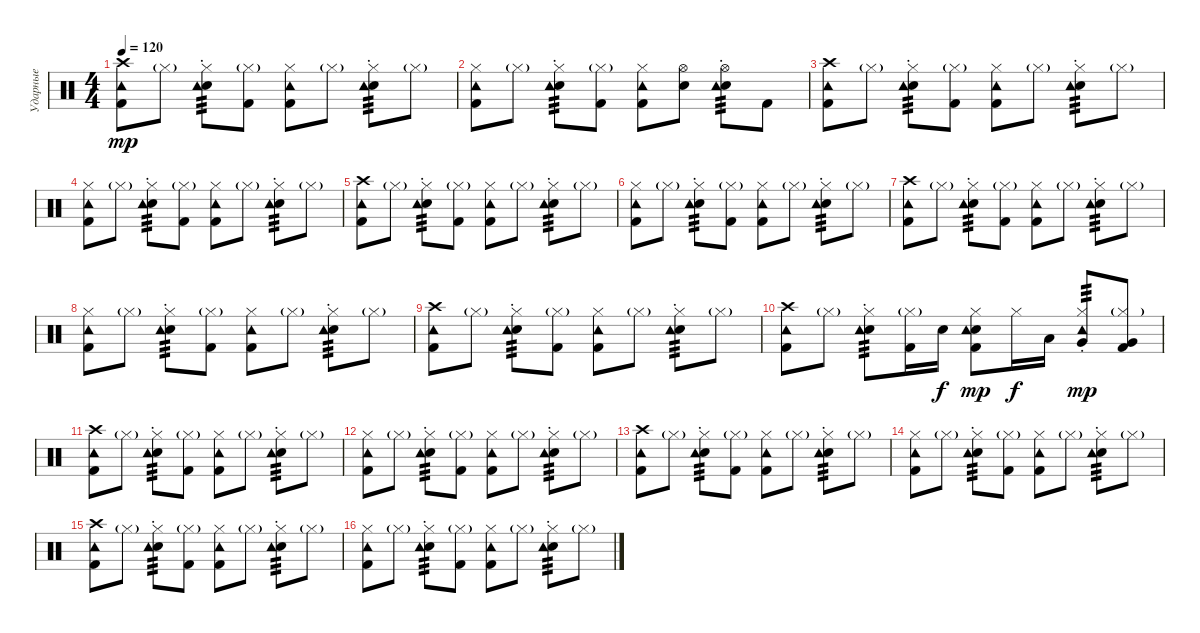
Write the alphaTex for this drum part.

\track ("Ударные" "Ударные") {instrument percussion}
\staff {score}
\articulation defaults
\ts (4 4)
\tempo 120
\clef neutral
\ks c
("Kick (hit) 2" "Crash high (hit)" "Tambourine (hit)").8{dy mp} "Hi-Hat (closed)"{g}.8 ("Electric Snare (hit)" "Hi-Hat (closed)" "Tambourine (hit)"{st}).8{tp 3} ("Kick (hit) 2" "Hi-Hat (closed)"{g}).8 ("Kick (hit) 2" "Hi-Hat (closed)" "Tambourine (hit)").8 "Hi-Hat (closed)"{g}.8 ("Electric Snare (hit)" "Hi-Hat (closed)" "Tambourine (hit)"{st}).8{tp 3} "Hi-Hat (closed)"{g}.8 |
("Kick (hit) 2" "Hi-Hat (closed)" "Tambourine (hit)").8 "Hi-Hat (closed)"{g}.8 ("Electric Snare (hit)" "Hi-Hat (closed)" "Tambourine (hit)"{st}).8{tp 3} ("Kick (hit) 2" "Hi-Hat (closed)"{g}).8 ("Kick (hit) 2" "Hi-Hat (closed)" "Tambourine (hit)").8 ("Electric Snare (hit)" "Hi-Hat (open)").8 ("Electric Snare (hit)" "Hi-Hat (open)" "Tambourine (hit)"{st}).8{tp 3} "Kick (hit) 2".8 |
("Kick (hit) 2" "Crash high (hit)" "Tambourine (hit)").8 "Hi-Hat (closed)"{g}.8 ("Electric Snare (hit)" "Hi-Hat (closed)" "Tambourine (hit)"{st}).8{tp 3} ("Kick (hit) 2" "Hi-Hat (closed)"{g}).8 ("Kick (hit) 2" "Hi-Hat (closed)" "Tambourine (hit)").8 "Hi-Hat (closed)"{g}.8 ("Electric Snare (hit)" "Hi-Hat (closed)" "Tambourine (hit)"{st}).8{tp 3} "Hi-Hat (closed)"{g}.8 |
("Kick (hit) 2" "Hi-Hat (closed)" "Tambourine (hit)").8 "Hi-Hat (closed)"{g}.8 ("Electric Snare (hit)" "Hi-Hat (closed)" "Tambourine (hit)"{st}).8{tp 3} ("Kick (hit) 2" "Hi-Hat (closed)"{g}).8 ("Kick (hit) 2" "Hi-Hat (closed)" "Tambourine (hit)").8 "Hi-Hat (closed)"{g}.8 ("Electric Snare (hit)" "Hi-Hat (closed)" "Tambourine (hit)"{st}).8{tp 3} "Hi-Hat (closed)"{g}.8 |
("Kick (hit) 2" "Crash high (hit)" "Tambourine (hit)").8 "Hi-Hat (closed)"{g}.8 ("Electric Snare (hit)" "Hi-Hat (closed)" "Tambourine (hit)"{st}).8{tp 3} ("Kick (hit) 2" "Hi-Hat (closed)"{g}).8 ("Kick (hit) 2" "Hi-Hat (closed)" "Tambourine (hit)").8 "Hi-Hat (closed)"{g}.8 ("Electric Snare (hit)" "Hi-Hat (closed)" "Tambourine (hit)"{st}).8{tp 3} "Hi-Hat (closed)"{g}.8 |
("Kick (hit) 2" "Hi-Hat (closed)" "Tambourine (hit)").8 "Hi-Hat (closed)"{g}.8 ("Electric Snare (hit)" "Hi-Hat (closed)" "Tambourine (hit)"{st}).8{tp 3} ("Kick (hit) 2" "Hi-Hat (closed)"{g}).8 ("Kick (hit) 2" "Hi-Hat (closed)" "Tambourine (hit)").8 "Hi-Hat (closed)"{g}.8 ("Electric Snare (hit)" "Hi-Hat (closed)" "Tambourine (hit)"{st}).8{tp 3} "Hi-Hat (closed)"{g}.8 |
("Kick (hit) 2" "Crash high (hit)" "Tambourine (hit)").8 "Hi-Hat (closed)"{g}.8 ("Electric Snare (hit)" "Hi-Hat (closed)" "Tambourine (hit)"{st}).8{tp 3} ("Kick (hit) 2" "Hi-Hat (closed)"{g}).8 ("Kick (hit) 2" "Hi-Hat (closed)" "Tambourine (hit)").8 "Hi-Hat (closed)"{g}.8 ("Electric Snare (hit)" "Hi-Hat (closed)" "Tambourine (hit)"{st}).8{tp 3} "Hi-Hat (closed)"{g}.8 |
("Kick (hit) 2" "Hi-Hat (closed)" "Tambourine (hit)").8 "Hi-Hat (closed)"{g}.8 ("Electric Snare (hit)" "Hi-Hat (closed)" "Tambourine (hit)"{st}).8{tp 3} ("Kick (hit) 2" "Hi-Hat (closed)"{g}).8 ("Kick (hit) 2" "Hi-Hat (closed)" "Tambourine (hit)").8 "Hi-Hat (closed)"{g}.8 ("Electric Snare (hit)" "Hi-Hat (closed)" "Tambourine (hit)"{st}).8{tp 3} "Hi-Hat (closed)"{g}.8 |
("Kick (hit) 2" "Crash high (hit)" "Tambourine (hit)").8 "Hi-Hat (closed)"{g}.8 ("Electric Snare (hit)" "Hi-Hat (closed)" "Tambourine (hit)"{st}).8{tp 3} ("Kick (hit) 2" "Hi-Hat (closed)"{g}).8 ("Kick (hit) 2" "Hi-Hat (closed)" "Tambourine (hit)").8 "Hi-Hat (closed)"{g}.8 ("Electric Snare (hit)" "Hi-Hat (closed)" "Tambourine (hit)"{st}).8{tp 3} "Hi-Hat (closed)"{g}.8 |
("Kick (hit) 2" "Crash high (hit)" "Tambourine (hit)").8 "Hi-Hat (closed)"{g}.8 ("Electric Snare (hit)" "Hi-Hat (closed)" "Tambourine (hit)"{st}).8{tp 3} ("Kick (hit) 2" "Hi-Hat (closed)"{g}).16 "Electric Snare (hit)".16{dy f} ("Kick (hit) 2" "Hi-Hat (closed)" "Electric Snare (hit)" "Tambourine (hit)").8{dy mp} "Hi-Hat (closed)".16{dy f} "Low Tom (hit)".16 ("Hi-Hat (closed)" "Very Low Tom (hit)" "Tambourine (hit)"{st}).8{tp 3 dy mp} ("Kick (hit) 2" "Hi-Hat (closed)"{g} "Very Low Tom (hit)").8 |
("Kick (hit) 2" "Crash high (hit)" "Tambourine (hit)").8 "Hi-Hat (closed)"{g}.8 ("Electric Snare (hit)" "Hi-Hat (closed)" "Tambourine (hit)"{st}).8{tp 3} ("Kick (hit) 2" "Hi-Hat (closed)"{g}).8 ("Kick (hit) 2" "Hi-Hat (closed)" "Tambourine (hit)").8 "Hi-Hat (closed)"{g}.8 ("Electric Snare (hit)" "Hi-Hat (closed)" "Tambourine (hit)"{st}).8{tp 3} "Hi-Hat (closed)"{g}.8 |
("Kick (hit) 2" "Hi-Hat (closed)" "Tambourine (hit)").8 "Hi-Hat (closed)"{g}.8 ("Electric Snare (hit)" "Hi-Hat (closed)" "Tambourine (hit)"{st}).8{tp 3} ("Kick (hit) 2" "Hi-Hat (closed)"{g}).8 ("Kick (hit) 2" "Hi-Hat (closed)" "Tambourine (hit)").8 "Hi-Hat (closed)"{g}.8 ("Electric Snare (hit)" "Hi-Hat (closed)" "Tambourine (hit)"{st}).8{tp 3} "Hi-Hat (closed)"{g}.8 |
("Kick (hit) 2" "Crash high (hit)" "Tambourine (hit)").8 "Hi-Hat (closed)"{g}.8 ("Electric Snare (hit)" "Hi-Hat (closed)" "Tambourine (hit)"{st}).8{tp 3} ("Kick (hit) 2" "Hi-Hat (closed)"{g}).8 ("Kick (hit) 2" "Hi-Hat (closed)" "Tambourine (hit)").8 "Hi-Hat (closed)"{g}.8 ("Electric Snare (hit)" "Hi-Hat (closed)" "Tambourine (hit)"{st}).8{tp 3} "Hi-Hat (closed)"{g}.8 |
("Kick (hit) 2" "Hi-Hat (closed)" "Tambourine (hit)").8 "Hi-Hat (closed)"{g}.8 ("Electric Snare (hit)" "Hi-Hat (closed)" "Tambourine (hit)"{st}).8{tp 3} ("Kick (hit) 2" "Hi-Hat (closed)"{g}).8 ("Kick (hit) 2" "Hi-Hat (closed)" "Tambourine (hit)").8 "Hi-Hat (closed)"{g}.8 ("Electric Snare (hit)" "Hi-Hat (closed)" "Tambourine (hit)"{st}).8{tp 3} "Hi-Hat (closed)"{g}.8 |
("Kick (hit) 2" "Crash high (hit)" "Tambourine (hit)").8 "Hi-Hat (closed)"{g}.8 ("Electric Snare (hit)" "Hi-Hat (closed)" "Tambourine (hit)"{st}).8{tp 3} ("Kick (hit) 2" "Hi-Hat (closed)"{g}).8 ("Kick (hit) 2" "Hi-Hat (closed)" "Tambourine (hit)").8 "Hi-Hat (closed)"{g}.8 ("Electric Snare (hit)" "Hi-Hat (closed)" "Tambourine (hit)"{st}).8{tp 3} "Hi-Hat (closed)"{g}.8 |
("Kick (hit) 2" "Hi-Hat (closed)" "Tambourine (hit)").8 "Hi-Hat (closed)"{g}.8 ("Electric Snare (hit)" "Hi-Hat (closed)" "Tambourine (hit)"{st}).8{tp 3} ("Kick (hit) 2" "Hi-Hat (closed)"{g}).8 ("Kick (hit) 2" "Hi-Hat (closed)" "Tambourine (hit)").8 "Hi-Hat (closed)"{g}.8 ("Electric Snare (hit)" "Hi-Hat (closed)" "Tambourine (hit)"{st}).8{tp 3} "Hi-Hat (closed)"{g}.8
